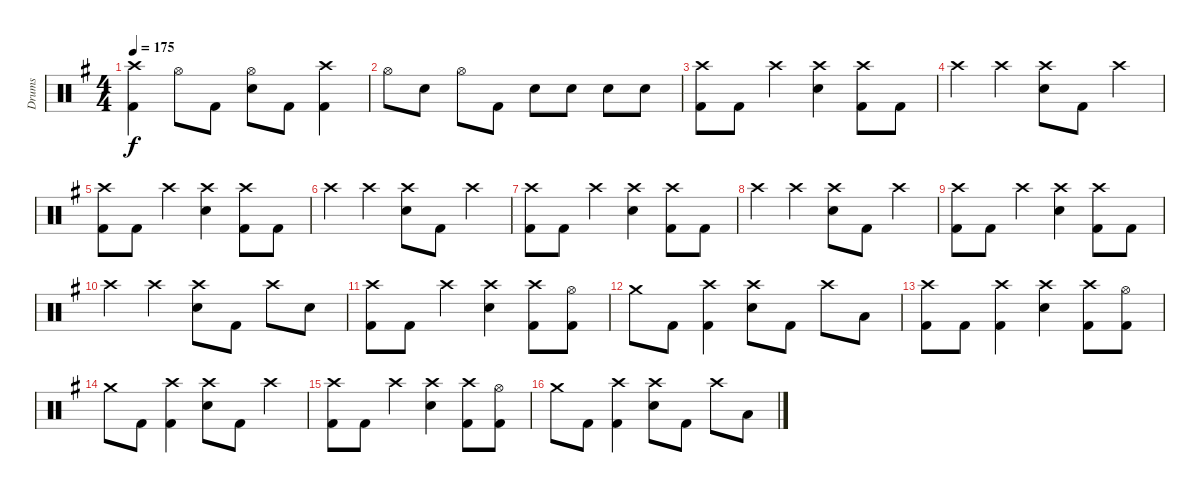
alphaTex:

\track ("Drums" "Drums") {instrument percussion}
\staff {score}
\articulation defaults
\ts (4 4)
\tempo 175
\clef neutral
\ks g
("Crash high (hit)" "Kick (hit) 2").4{dy f} "Hi-Hat (open)".8 "Kick (hit) 2".8 ("Hi-Hat (open)" "Electric Snare (hit)").8 "Kick (hit) 2".8 ("Crash high (hit)" "Kick (hit) 2").4 |
"Hi-Hat (open)".8 "Electric Snare (hit)".8 "Hi-Hat (open)".8 "Kick (hit) 2".8 "Electric Snare (hit)".8 "Electric Snare (hit)".8 "Electric Snare (hit)".8 "Electric Snare (hit)".8 |
("Crash high (hit)" "Kick (hit) 2").8 "Kick (hit) 2".8 "Crash high (hit)".4 ("Crash high (hit)" "Electric Snare (hit)").4 ("Crash high (hit)" "Kick (hit) 2").8 "Kick (hit) 2".8 |
"Crash high (hit)".4 "Crash high (hit)".4 ("Crash high (hit)" "Electric Snare (hit)").8 "Kick (hit) 2".8 "Crash high (hit)".4 |
("Crash high (hit)" "Kick (hit) 2").8 "Kick (hit) 2".8 "Crash high (hit)".4 ("Crash high (hit)" "Electric Snare (hit)").4 ("Crash high (hit)" "Kick (hit) 2").8 "Kick (hit) 2".8 |
"Crash high (hit)".4 "Crash high (hit)".4 ("Crash high (hit)" "Electric Snare (hit)").8 "Kick (hit) 2".8 "Crash high (hit)".4 |
("Crash high (hit)" "Kick (hit) 2").8 "Kick (hit) 2".8 "Crash high (hit)".4 ("Crash high (hit)" "Electric Snare (hit)").4 ("Crash high (hit)" "Kick (hit) 2").8 "Kick (hit) 2".8 |
"Crash high (hit)".4 "Crash high (hit)".4 ("Crash high (hit)" "Electric Snare (hit)").8 "Kick (hit) 2".8 "Crash high (hit)".4 |
("Crash high (hit)" "Kick (hit) 2").8 "Kick (hit) 2".8 "Crash high (hit)".4 ("Crash high (hit)" "Electric Snare (hit)").4 ("Crash high (hit)" "Kick (hit) 2").8 "Kick (hit) 2".8 |
"Crash high (hit)".4 "Crash high (hit)".4 ("Crash high (hit)" "Electric Snare (hit)").8 "Kick (hit) 2".8 "Crash high (hit)".8 "Electric Snare (hit)".8 |
("Crash high (hit)" "Kick (hit) 2").8 "Kick (hit) 2".8 "Crash high (hit)".4 ("Crash high (hit)" "Electric Snare (hit)").4 ("Crash high (hit)" "Kick (hit) 2").8 ("Hi-Hat (open)" "Kick (hit) 2").8 |
"Crash medium (hit)".8 "Kick (hit) 2".8 ("Crash high (hit)" "Kick (hit) 2").4 ("Crash high (hit)" "Electric Snare (hit)").8 "Kick (hit) 2".8 "Crash high (hit)".8 "Low Tom (hit)".8 |
("Crash high (hit)" "Kick (hit) 2").8 "Kick (hit) 2".8 ("Crash high (hit)" "Kick (hit) 2").4 ("Crash high (hit)" "Electric Snare (hit)").4 ("Crash high (hit)" "Kick (hit) 2").8 ("Hi-Hat (open)" "Kick (hit) 2").8 |
"Crash medium (hit)".8 "Kick (hit) 2".8 ("Crash high (hit)" "Kick (hit) 2").4 ("Crash high (hit)" "Electric Snare (hit)").8 "Kick (hit) 2".8 "Crash high (hit)".4 |
("Crash high (hit)" "Kick (hit) 2").8 "Kick (hit) 2".8 "Crash high (hit)".4 ("Crash high (hit)" "Electric Snare (hit)").4 ("Crash high (hit)" "Kick (hit) 2").8 ("Hi-Hat (open)" "Kick (hit) 2").8 |
"Crash medium (hit)".8 "Kick (hit) 2".8 ("Crash high (hit)" "Kick (hit) 2").4 ("Crash high (hit)" "Electric Snare (hit)").8 "Kick (hit) 2".8 "Crash high (hit)".8 "Low Tom (hit)".8
